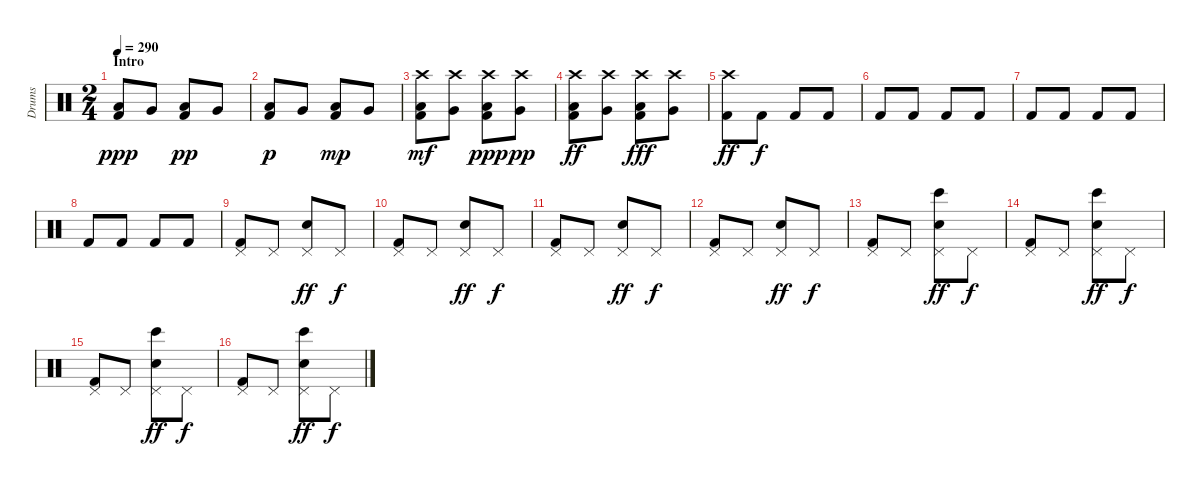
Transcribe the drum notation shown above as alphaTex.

\track ("Drums" "Drums") {instrument percussion}
\staff {score}
\articulation defaults
\ts (2 4)
\section ("" "Intro")
\tempo 290
\clef neutral
\ks c
("Low Floor Tom (hit)" "Kick (hit) 2").8{dy ppp} "Very Low Tom (hit)".8 ("Low Tom (hit)" "Kick (hit) 2").8{dy pp} "Very Low Tom (hit)".8 |
("Low Floor Tom (hit)" "Kick (hit) 2").8{dy p} "Very Low Tom (hit)".8 ("Low Tom (hit)" "Kick (hit) 2").8{dy mp} "Very Low Tom (hit)".8 |
("Crash high (hit)" "Low Floor Tom (hit)" "Kick (hit) 2").8{dy mf} ("Crash high (hit)" "Very Low Tom (hit)").8 ("Crash high (hit)" "Low Tom (hit)" "Kick (hit) 2").8{dy ppp} ("Crash high (hit)" "Very Low Tom (hit)").8{dy pp} |
("Crash high (hit)" "Low Floor Tom (hit)" "Kick (hit) 2").8{dy ff} ("Crash high (hit)" "Very Low Tom (hit)").8 ("Crash high (hit)" "Low Tom (hit)" "Kick (hit) 2").8{dy fff} ("Crash high (hit)" "Very Low Tom (hit)").8 |
("Crash high (hit)" "Kick (hit) 2").8{dy ff} "Kick (hit) 2".8{dy f} "Kick (hit) 2".8 "Kick (hit) 2".8 |
"Kick (hit) 2".8 "Kick (hit) 2".8 "Kick (hit) 2".8 "Kick (hit) 2".8 |
"Kick (hit) 2".8 "Kick (hit) 2".8 "Kick (hit) 2".8 "Kick (hit) 2".8 |
"Kick (hit) 2".8 "Kick (hit) 2".8 "Kick (hit) 2".8 "Kick (hit) 2".8 |
("Pedal Hi-Hat (hit)" "Kick (hit) 2").8 "Pedal Hi-Hat (hit)".8 ("Pedal Hi-Hat (hit)" "Electric Snare (hit)").8{dy ff} "Pedal Hi-Hat (hit)".8{dy f} |
("Pedal Hi-Hat (hit)" "Kick (hit) 2").8 "Pedal Hi-Hat (hit)".8 ("Pedal Hi-Hat (hit)" "Electric Snare (hit)").8{dy ff} "Pedal Hi-Hat (hit)".8{dy f} |
("Pedal Hi-Hat (hit)" "Kick (hit) 2").8 "Pedal Hi-Hat (hit)".8 ("Pedal Hi-Hat (hit)" "Electric Snare (hit)").8{dy ff} "Pedal Hi-Hat (hit)".8{dy f} |
("Pedal Hi-Hat (hit)" "Kick (hit) 2").8 "Pedal Hi-Hat (hit)".8 ("Pedal Hi-Hat (hit)" "Electric Snare (hit)").8{dy ff} "Pedal Hi-Hat (hit)".8{dy f} |
("Pedal Hi-Hat (hit)" "Kick (hit) 2").8 "Pedal Hi-Hat (hit)".8 ("Pedal Hi-Hat (hit)" "Bongo High (hit)" "Electric Snare (hit)").8{dy ff} "Pedal Hi-Hat (hit)".8{dy f} |
("Pedal Hi-Hat (hit)" "Kick (hit) 2").8 "Pedal Hi-Hat (hit)".8 ("Pedal Hi-Hat (hit)" "Bongo High (hit)" "Electric Snare (hit)").8{dy ff} "Pedal Hi-Hat (hit)".8{dy f} |
("Pedal Hi-Hat (hit)" "Kick (hit) 2").8 "Pedal Hi-Hat (hit)".8 ("Pedal Hi-Hat (hit)" "Bongo High (hit)" "Electric Snare (hit)").8{dy ff} "Pedal Hi-Hat (hit)".8{dy f} |
("Pedal Hi-Hat (hit)" "Kick (hit) 2").8 "Pedal Hi-Hat (hit)".8 ("Pedal Hi-Hat (hit)" "Bongo High (hit)" "Electric Snare (hit)").8{dy ff} "Pedal Hi-Hat (hit)".8{dy f}
